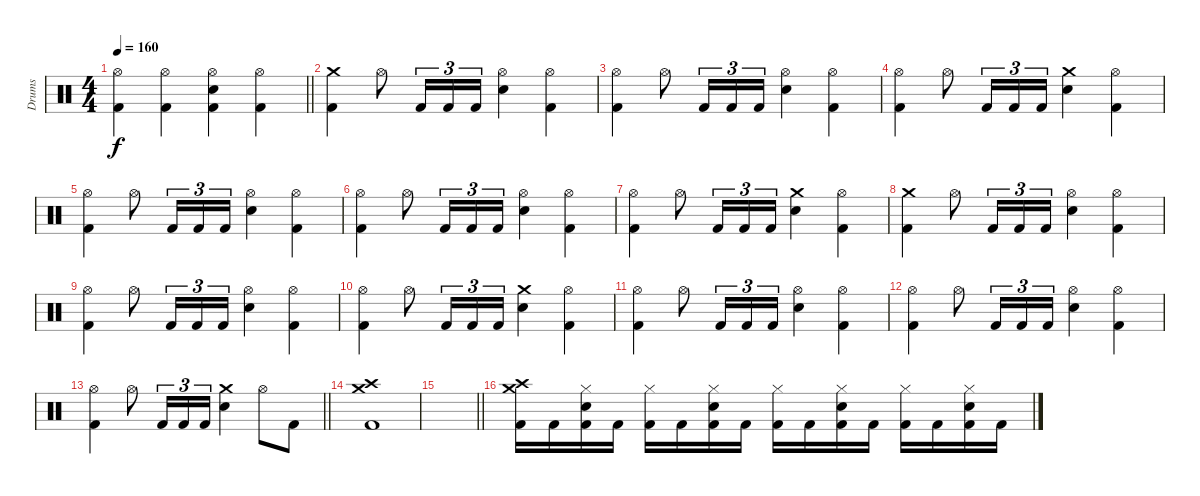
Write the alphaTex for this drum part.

\track ("Drums" "Drums") {instrument percussion}
\staff {score}
\articulation defaults
\ts (4 4)
\tempo 160
\clef neutral
\barLineRight lightlight
\ks c
("Hi-Hat (open)" "Kick (hit) 2").4{dy f} ("Hi-Hat (open)" "Kick (hit) 2").4 ("Hi-Hat (open)" "Electric Snare (hit)" "Kick (hit) 2").4 ("Hi-Hat (open)" "Kick (hit) 2").4 |
\section ("" "")
("Crash medium (hit)" "Kick (hit) 2").4 "Hi-Hat (open)".8 "Kick (hit) 2".16{tu (3 2)} "Kick (hit) 2".16{tu (3 2)} "Kick (hit) 2".16{tu (3 2)} ("Hi-Hat (open)" "Electric Snare (hit)").4 ("Hi-Hat (open)" "Kick (hit) 2").4 |
("Hi-Hat (open)" "Kick (hit) 2").4 "Hi-Hat (open)".8 "Kick (hit) 2".16{tu (3 2)} "Kick (hit) 2".16{tu (3 2)} "Kick (hit) 2".16{tu (3 2)} ("Hi-Hat (open)" "Electric Snare (hit)").4 ("Hi-Hat (open)" "Kick (hit) 2").4 |
("Hi-Hat (open)" "Kick (hit) 2").4 "Hi-Hat (open)".8 "Kick (hit) 2".16{tu (3 2)} "Kick (hit) 2".16{tu (3 2)} "Kick (hit) 2".16{tu (3 2)} ("Crash medium (hit)" "Electric Snare (hit)").4 ("Hi-Hat (open)" "Kick (hit) 2").4 |
("Hi-Hat (open)" "Kick (hit) 2").4 "Hi-Hat (open)".8 "Kick (hit) 2".16{tu (3 2)} "Kick (hit) 2".16{tu (3 2)} "Kick (hit) 2".16{tu (3 2)} ("Hi-Hat (open)" "Electric Snare (hit)").4 ("Hi-Hat (open)" "Kick (hit) 2").4 |
("Hi-Hat (open)" "Kick (hit) 2").4 "Hi-Hat (open)".8 "Kick (hit) 2".16{tu (3 2)} "Kick (hit) 2".16{tu (3 2)} "Kick (hit) 2".16{tu (3 2)} ("Hi-Hat (open)" "Electric Snare (hit)").4 ("Hi-Hat (open)" "Kick (hit) 2").4 |
("Hi-Hat (open)" "Kick (hit) 2").4 "Hi-Hat (open)".8 "Kick (hit) 2".16{tu (3 2)} "Kick (hit) 2".16{tu (3 2)} "Kick (hit) 2".16{tu (3 2)} ("Crash medium (hit)" "Electric Snare (hit)").4 ("Hi-Hat (open)" "Kick (hit) 2").4 |
("Crash medium (hit)" "Kick (hit) 2").4 "Hi-Hat (open)".8 "Kick (hit) 2".16{tu (3 2)} "Kick (hit) 2".16{tu (3 2)} "Kick (hit) 2".16{tu (3 2)} ("Hi-Hat (open)" "Electric Snare (hit)").4 ("Hi-Hat (open)" "Kick (hit) 2").4 |
("Hi-Hat (open)" "Kick (hit) 2").4 "Hi-Hat (open)".8 "Kick (hit) 2".16{tu (3 2)} "Kick (hit) 2".16{tu (3 2)} "Kick (hit) 2".16{tu (3 2)} ("Hi-Hat (open)" "Electric Snare (hit)").4 ("Hi-Hat (open)" "Kick (hit) 2").4 |
("Hi-Hat (open)" "Kick (hit) 2").4 "Hi-Hat (open)".8 "Kick (hit) 2".16{tu (3 2)} "Kick (hit) 2".16{tu (3 2)} "Kick (hit) 2".16{tu (3 2)} ("Crash medium (hit)" "Electric Snare (hit)").4 ("Hi-Hat (open)" "Kick (hit) 2").4 |
("Hi-Hat (open)" "Kick (hit) 2").4 "Hi-Hat (open)".8 "Kick (hit) 2".16{tu (3 2)} "Kick (hit) 2".16{tu (3 2)} "Kick (hit) 2".16{tu (3 2)} ("Hi-Hat (open)" "Electric Snare (hit)").4 ("Hi-Hat (open)" "Kick (hit) 2").4 |
("Hi-Hat (open)" "Kick (hit) 2").4 "Hi-Hat (open)".8 "Kick (hit) 2".16{tu (3 2)} "Kick (hit) 2".16{tu (3 2)} "Kick (hit) 2".16{tu (3 2)} ("Hi-Hat (open)" "Electric Snare (hit)").4 ("Hi-Hat (open)" "Kick (hit) 2").4 |
\barLineRight lightlight
("Hi-Hat (open)" "Kick (hit) 2").4 "Hi-Hat (open)".8 "Kick (hit) 2".16{tu (3 2)} "Kick (hit) 2".16{tu (3 2)} "Kick (hit) 2".16{tu (3 2)} ("Crash medium (hit)" "Electric Snare (hit)").4 "Hi-Hat (open)".8 "Kick (hit) 2".8 |
\section ("" "")
("Crash medium (hit)" "Crash high (hit)" "Kick (hit) 2").1 |
\barLineRight lightlight
|
\section ("" "")
("Crash medium (hit)" "Crash high (hit)" "Kick (hit) 2").16 "Kick (hit) 2".16 ("Hi-Hat (closed)" "Electric Snare (hit)" "Kick (hit) 2").16 "Kick (hit) 2".16 ("Hi-Hat (closed)" "Kick (hit) 2").16 "Kick (hit) 2".16 ("Hi-Hat (closed)" "Electric Snare (hit)" "Kick (hit) 2").16 "Kick (hit) 2".16 ("Hi-Hat (closed)" "Kick (hit) 2").16 "Kick (hit) 2".16 ("Hi-Hat (closed)" "Electric Snare (hit)" "Kick (hit) 2").16 "Kick (hit) 2".16 ("Hi-Hat (closed)" "Kick (hit) 2").16 "Kick (hit) 2".16 ("Hi-Hat (closed)" "Electric Snare (hit)" "Kick (hit) 2").16 "Kick (hit) 2".16
